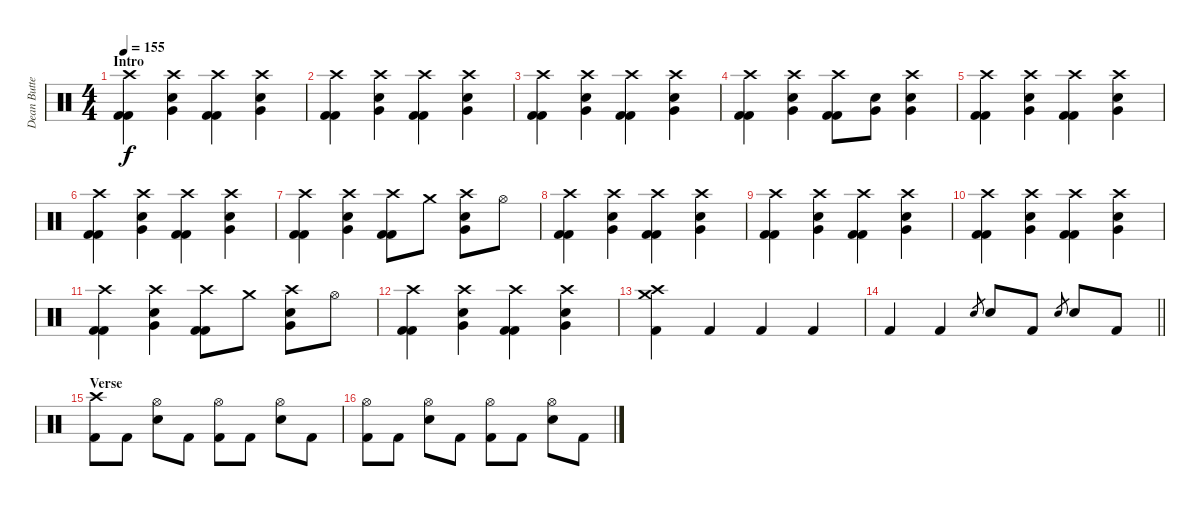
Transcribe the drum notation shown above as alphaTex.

\track ("Dean Butterworth [Drums]" "Dean Butte") {instrument percussion}
\staff {score}
\articulation defaults
\ts (4 4)
\section ("" "Intro")
\tempo 155
\clef neutral
\ks c
("Crash high (hit)" "Kick (hit) 2" "Kick (hit) 2").4{dy f} ("Crash high (hit)" "Very Low Tom (hit)" "Electric Snare (hit)").4 ("Crash high (hit)" "Kick (hit) 2" "Kick (hit) 2").4 ("Crash high (hit)" "Very Low Tom (hit)" "Electric Snare (hit)").4 |
("Crash high (hit)" "Kick (hit) 2" "Kick (hit) 2").4 ("Crash high (hit)" "Very Low Tom (hit)" "Electric Snare (hit)").4 ("Crash high (hit)" "Kick (hit) 2" "Kick (hit) 2").4 ("Crash high (hit)" "Very Low Tom (hit)" "Electric Snare (hit)").4 |
("Crash high (hit)" "Kick (hit) 2" "Kick (hit) 2").4 ("Crash high (hit)" "Very Low Tom (hit)" "Electric Snare (hit)").4 ("Crash high (hit)" "Kick (hit) 2" "Kick (hit) 2").4 ("Crash high (hit)" "Very Low Tom (hit)" "Electric Snare (hit)").4 |
("Crash high (hit)" "Kick (hit) 2" "Kick (hit) 2").4 ("Crash high (hit)" "Very Low Tom (hit)" "Electric Snare (hit)").4 ("Crash high (hit)" "Kick (hit) 2" "Kick (hit) 2").8 ("Very Low Tom (hit)" "Electric Snare (hit)").8 ("Crash high (hit)" "Very Low Tom (hit)" "Electric Snare (hit)").4 |
("Crash high (hit)" "Kick (hit) 2" "Kick (hit) 2").4 ("Crash high (hit)" "Very Low Tom (hit)" "Electric Snare (hit)").4 ("Crash high (hit)" "Kick (hit) 2" "Kick (hit) 2").4 ("Crash high (hit)" "Very Low Tom (hit)" "Electric Snare (hit)").4 |
("Crash high (hit)" "Kick (hit) 2" "Kick (hit) 2").4 ("Crash high (hit)" "Very Low Tom (hit)" "Electric Snare (hit)").4 ("Crash high (hit)" "Kick (hit) 2" "Kick (hit) 2").4 ("Crash high (hit)" "Very Low Tom (hit)" "Electric Snare (hit)").4 |
("Crash high (hit)" "Kick (hit) 2" "Kick (hit) 2").4 ("Crash high (hit)" "Very Low Tom (hit)" "Electric Snare (hit)").4 ("Crash high (hit)" "Kick (hit) 2" "Kick (hit) 2").8 "Crash medium (hit)".8 ("Crash high (hit)" "Very Low Tom (hit)" "Electric Snare (hit)").8 "Hi-Hat (open)".8 |
("Crash high (hit)" "Kick (hit) 2" "Kick (hit) 2").4 ("Crash high (hit)" "Very Low Tom (hit)" "Electric Snare (hit)").4 ("Crash high (hit)" "Kick (hit) 2" "Kick (hit) 2").4 ("Crash high (hit)" "Very Low Tom (hit)" "Electric Snare (hit)").4 |
("Crash high (hit)" "Kick (hit) 2" "Kick (hit) 2").4 ("Crash high (hit)" "Very Low Tom (hit)" "Electric Snare (hit)").4 ("Crash high (hit)" "Kick (hit) 2" "Kick (hit) 2").4 ("Crash high (hit)" "Very Low Tom (hit)" "Electric Snare (hit)").4 |
("Crash high (hit)" "Kick (hit) 2" "Kick (hit) 2").4 ("Crash high (hit)" "Very Low Tom (hit)" "Electric Snare (hit)").4 ("Crash high (hit)" "Kick (hit) 2" "Kick (hit) 2").4 ("Crash high (hit)" "Very Low Tom (hit)" "Electric Snare (hit)").4 |
("Crash high (hit)" "Kick (hit) 2" "Kick (hit) 2").4 ("Crash high (hit)" "Very Low Tom (hit)" "Electric Snare (hit)").4 ("Crash high (hit)" "Kick (hit) 2" "Kick (hit) 2").8 "Crash medium (hit)".8 ("Crash high (hit)" "Very Low Tom (hit)" "Electric Snare (hit)").8 "Hi-Hat (open)".8 |
("Crash high (hit)" "Kick (hit) 2" "Kick (hit) 2").4 ("Crash high (hit)" "Very Low Tom (hit)" "Electric Snare (hit)").4 ("Crash high (hit)" "Kick (hit) 2" "Kick (hit) 2").4 ("Crash high (hit)" "Very Low Tom (hit)" "Electric Snare (hit)").4 |
("Crash high (hit)" "Crash medium (hit)" "Kick (hit) 2").4 "Kick (hit) 2".4 "Kick (hit) 2".4 "Kick (hit) 2".4 |
\barLineRight lightlight "Kick (hit) 2".4 "Kick (hit) 2".4 "Electric Snare (hit)".8{gr} "Electric Snare (hit)".8 "Kick (hit) 2".8 "Electric Snare (hit)".8{gr} "Electric Snare (hit)".8 "Kick (hit) 2".8
|
\section ("" "Verse")
("Crash high (hit)" "Kick (hit) 2").8 "Kick (hit) 2".8 ("Hi-Hat (open)" "Electric Snare (hit)").8 "Kick (hit) 2".8 ("Hi-Hat (open)" "Kick (hit) 2").8 "Kick (hit) 2".8 ("Hi-Hat (open)" "Electric Snare (hit)").8 "Kick (hit) 2".8 |
("Hi-Hat (open)" "Kick (hit) 2").8 "Kick (hit) 2".8 ("Hi-Hat (open)" "Electric Snare (hit)").8 "Kick (hit) 2".8 ("Hi-Hat (open)" "Kick (hit) 2").8 "Kick (hit) 2".8 ("Hi-Hat (open)" "Electric Snare (hit)").8 "Kick (hit) 2".8
